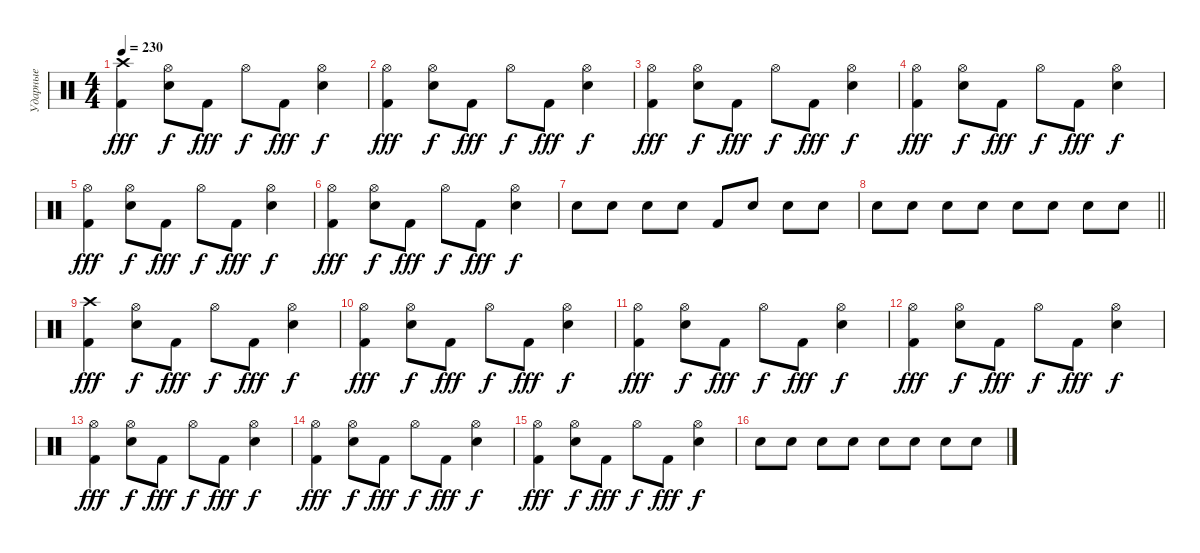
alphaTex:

\track ("Ударные" "Ударные") {instrument percussion}
\staff
\articulation defaults
\ts (4 4)
\tempo 230
\clef neutral
\ks c
("Kick (hit) 2" "Crash high (hit)").4{dy fff} ("Snare (hit) 2" "Hi-Hat (open)").8{dy f} "Kick (hit) 2".8{dy fff} "Hi-Hat (open)".8{dy f} "Kick (hit) 2".8{dy fff} ("Snare (hit) 2" "Hi-Hat (open)").4{dy f} |
("Kick (hit) 2" "Hi-Hat (open)").4{dy fff} ("Snare (hit) 2" "Hi-Hat (open)").8{dy f} "Kick (hit) 2".8{dy fff} "Hi-Hat (open)".8{dy f} "Kick (hit) 2".8{dy fff} ("Snare (hit) 2" "Hi-Hat (open)").4{dy f} |
("Kick (hit) 2" "Hi-Hat (open)").4{dy fff} ("Snare (hit) 2" "Hi-Hat (open)").8{dy f} "Kick (hit) 2".8{dy fff} "Hi-Hat (open)".8{dy f} "Kick (hit) 2".8{dy fff} ("Snare (hit) 2" "Hi-Hat (open)").4{dy f} |
("Kick (hit) 2" "Hi-Hat (open)").4{dy fff} ("Snare (hit) 2" "Hi-Hat (open)").8{dy f} "Kick (hit) 2".8{dy fff} "Hi-Hat (open)".8{dy f} "Kick (hit) 2".8{dy fff} ("Snare (hit) 2" "Hi-Hat (open)").4{dy f} |
("Kick (hit) 2" "Hi-Hat (open)").4{dy fff} ("Snare (hit) 2" "Hi-Hat (open)").8{dy f} "Kick (hit) 2".8{dy fff} "Hi-Hat (open)".8{dy f} "Kick (hit) 2".8{dy fff} ("Snare (hit) 2" "Hi-Hat (open)").4{dy f} |
("Kick (hit) 2" "Hi-Hat (open)").4{dy fff} ("Snare (hit) 2" "Hi-Hat (open)").8{dy f} "Kick (hit) 2".8{dy fff} "Hi-Hat (open)".8{dy f} "Kick (hit) 2".8{dy fff} ("Snare (hit) 2" "Hi-Hat (open)").4{dy f} |
"Snare (hit) 2".8 "Snare (hit) 2".8 "Snare (hit) 2".8 "Snare (hit) 2".8 "Kick (hit) 2".8 "Snare (hit) 2".8 "Snare (hit) 2".8 "Snare (hit) 2".8 |
\barLineRight lightlight "Snare (hit) 2".8 "Snare (hit) 2".8 "Snare (hit) 2".8 "Snare (hit) 2".8 "Snare (hit) 2".8 "Snare (hit) 2".8 "Snare (hit) 2".8 "Snare (hit) 2".8
|
("Kick (hit) 2" "Crash high (hit)").4{dy fff} ("Snare (hit) 2" "Hi-Hat (open)").8{dy f} "Kick (hit) 2".8{dy fff} "Hi-Hat (open)".8{dy f} "Kick (hit) 2".8{dy fff} ("Snare (hit) 2" "Hi-Hat (open)").4{dy f} |
("Kick (hit) 2" "Hi-Hat (open)").4{dy fff} ("Snare (hit) 2" "Hi-Hat (open)").8{dy f} "Kick (hit) 2".8{dy fff} "Hi-Hat (open)".8{dy f} "Kick (hit) 2".8{dy fff} ("Snare (hit) 2" "Hi-Hat (open)").4{dy f} |
("Kick (hit) 2" "Hi-Hat (open)").4{dy fff} ("Snare (hit) 2" "Hi-Hat (open)").8{dy f} "Kick (hit) 2".8{dy fff} "Hi-Hat (open)".8{dy f} "Kick (hit) 2".8{dy fff} ("Snare (hit) 2" "Hi-Hat (open)").4{dy f} |
("Kick (hit) 2" "Hi-Hat (open)").4{dy fff} ("Snare (hit) 2" "Hi-Hat (open)").8{dy f} "Kick (hit) 2".8{dy fff} "Hi-Hat (open)".8{dy f} "Kick (hit) 2".8{dy fff} ("Snare (hit) 2" "Hi-Hat (open)").4{dy f} |
("Kick (hit) 2" "Hi-Hat (open)").4{dy fff} ("Snare (hit) 2" "Hi-Hat (open)").8{dy f} "Kick (hit) 2".8{dy fff} "Hi-Hat (open)".8{dy f} "Kick (hit) 2".8{dy fff} ("Snare (hit) 2" "Hi-Hat (open)").4{dy f} |
("Kick (hit) 2" "Hi-Hat (open)").4{dy fff} ("Snare (hit) 2" "Hi-Hat (open)").8{dy f} "Kick (hit) 2".8{dy fff} "Hi-Hat (open)".8{dy f} "Kick (hit) 2".8{dy fff} ("Snare (hit) 2" "Hi-Hat (open)").4{dy f} |
("Kick (hit) 2" "Hi-Hat (open)").4{dy fff} ("Snare (hit) 2" "Hi-Hat (open)").8{dy f} "Kick (hit) 2".8{dy fff} "Hi-Hat (open)".8{dy f} "Kick (hit) 2".8{dy fff} ("Snare (hit) 2" "Hi-Hat (open)").4{dy f} |
"Snare (hit) 2".8 "Snare (hit) 2".8 "Snare (hit) 2".8 "Snare (hit) 2".8 "Snare (hit) 2".8 "Snare (hit) 2".8 "Snare (hit) 2".8 "Snare (hit) 2".8
